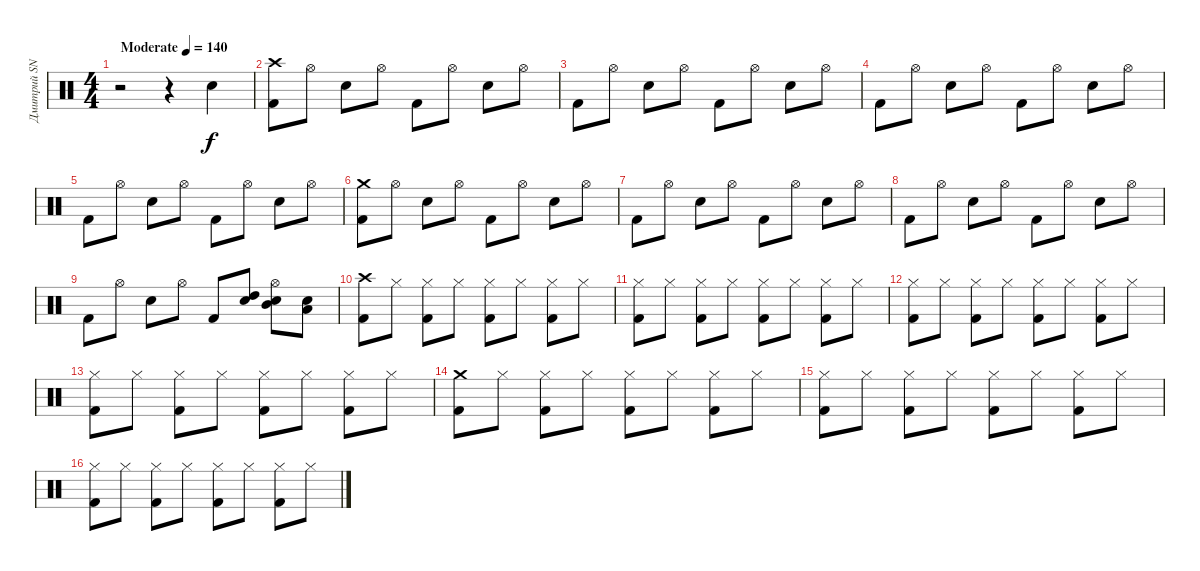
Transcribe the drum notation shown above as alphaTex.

\track ("Дмитрий SNAKE Хакимов" "Дмитрий SN") {instrument percussion}
\staff {score}
\articulation defaults
\ts (4 4)
\tempo (140 "Moderate")
\clef neutral
\ks c
r.2{dy f} r.4 "Electric Snare (hit)".4 |
("Crash high (hit)" "Kick (hit) 2").8 "Hi-Hat (open)".8 "Electric Snare (hit)".8 "Hi-Hat (open)".8 "Kick (hit) 2".8 "Hi-Hat (open)".8 "Electric Snare (hit)".8 "Hi-Hat (open)".8 |
"Kick (hit) 2".8 "Hi-Hat (open)".8 "Electric Snare (hit)".8 "Hi-Hat (open)".8 "Kick (hit) 2".8 "Hi-Hat (open)".8 "Electric Snare (hit)".8 "Hi-Hat (open)".8 |
"Kick (hit) 2".8 "Hi-Hat (open)".8 "Electric Snare (hit)".8 "Hi-Hat (open)".8 "Kick (hit) 2".8 "Hi-Hat (open)".8 "Electric Snare (hit)".8 "Hi-Hat (open)".8 |
"Kick (hit) 2".8 "Hi-Hat (open)".8 "Electric Snare (hit)".8 "Hi-Hat (open)".8 "Kick (hit) 2".8 "Hi-Hat (open)".8 "Electric Snare (hit)".8 "Hi-Hat (open)".8 |
("Crash medium (hit)" "Kick (hit) 2").8 "Hi-Hat (open)".8 "Electric Snare (hit)".8 "Hi-Hat (open)".8 "Kick (hit) 2".8 "Hi-Hat (open)".8 "Electric Snare (hit)".8 "Hi-Hat (open)".8 |
"Kick (hit) 2".8 "Hi-Hat (open)".8 "Electric Snare (hit)".8 "Hi-Hat (open)".8 "Kick (hit) 2".8 "Hi-Hat (open)".8 "Electric Snare (hit)".8 "Hi-Hat (open)".8 |
"Kick (hit) 2".8 "Hi-Hat (open)".8 "Electric Snare (hit)".8 "Hi-Hat (open)".8 "Kick (hit) 2".8 "Hi-Hat (open)".8 "Electric Snare (hit)".8 "Hi-Hat (open)".8 |
"Kick (hit) 2".8 "Hi-Hat (open)".8 "Electric Snare (hit)".8 "Hi-Hat (open)".8 "Kick (hit) 2".8 ("High Tom (hit)" "Electric Snare (hit)").8 ("Hi-Hat (open)" "Mid Tom (hit)" "Electric Snare (hit)").8 ("Low Tom (hit)" "Electric Snare (hit)").8 |
("Crash high (hit)" "Kick (hit) 2").8 "Hi-Hat (closed)".8 ("Hi-Hat (closed)" "Kick (hit) 2").8 "Hi-Hat (closed)".8 ("Hi-Hat (closed)" "Kick (hit) 2").8 "Hi-Hat (closed)".8 ("Hi-Hat (closed)" "Kick (hit) 2").8 "Hi-Hat (closed)".8 |
("Hi-Hat (closed)" "Kick (hit) 2").8 "Hi-Hat (closed)".8 ("Hi-Hat (closed)" "Kick (hit) 2").8 "Hi-Hat (closed)".8 ("Hi-Hat (closed)" "Kick (hit) 2").8 "Hi-Hat (closed)".8 ("Hi-Hat (closed)" "Kick (hit) 2").8 "Hi-Hat (closed)".8 |
("Hi-Hat (closed)" "Kick (hit) 2").8 "Hi-Hat (closed)".8 ("Hi-Hat (closed)" "Kick (hit) 2").8 "Hi-Hat (closed)".8 ("Hi-Hat (closed)" "Kick (hit) 2").8 "Hi-Hat (closed)".8 ("Hi-Hat (closed)" "Kick (hit) 2").8 "Hi-Hat (closed)".8 |
("Hi-Hat (closed)" "Kick (hit) 2").8 "Hi-Hat (closed)".8 ("Hi-Hat (closed)" "Kick (hit) 2").8 "Hi-Hat (closed)".8 ("Hi-Hat (closed)" "Kick (hit) 2").8 "Hi-Hat (closed)".8 ("Hi-Hat (closed)" "Kick (hit) 2").8 "Hi-Hat (closed)".8 |
("Crash medium (hit)" "Kick (hit) 2").8 "Hi-Hat (closed)".8 ("Hi-Hat (closed)" "Kick (hit) 2").8 "Hi-Hat (closed)".8 ("Hi-Hat (closed)" "Kick (hit) 2").8 "Hi-Hat (closed)".8 ("Hi-Hat (closed)" "Kick (hit) 2").8 "Hi-Hat (closed)".8 |
("Hi-Hat (closed)" "Kick (hit) 2").8 "Hi-Hat (closed)".8 ("Hi-Hat (closed)" "Kick (hit) 2").8 "Hi-Hat (closed)".8 ("Hi-Hat (closed)" "Kick (hit) 2").8 "Hi-Hat (closed)".8 ("Hi-Hat (closed)" "Kick (hit) 2").8 "Hi-Hat (closed)".8 |
("Hi-Hat (closed)" "Kick (hit) 2").8 "Hi-Hat (closed)".8 ("Hi-Hat (closed)" "Kick (hit) 2").8 "Hi-Hat (closed)".8 ("Hi-Hat (closed)" "Kick (hit) 2").8 "Hi-Hat (closed)".8 ("Hi-Hat (closed)" "Kick (hit) 2").8 "Hi-Hat (closed)".8
